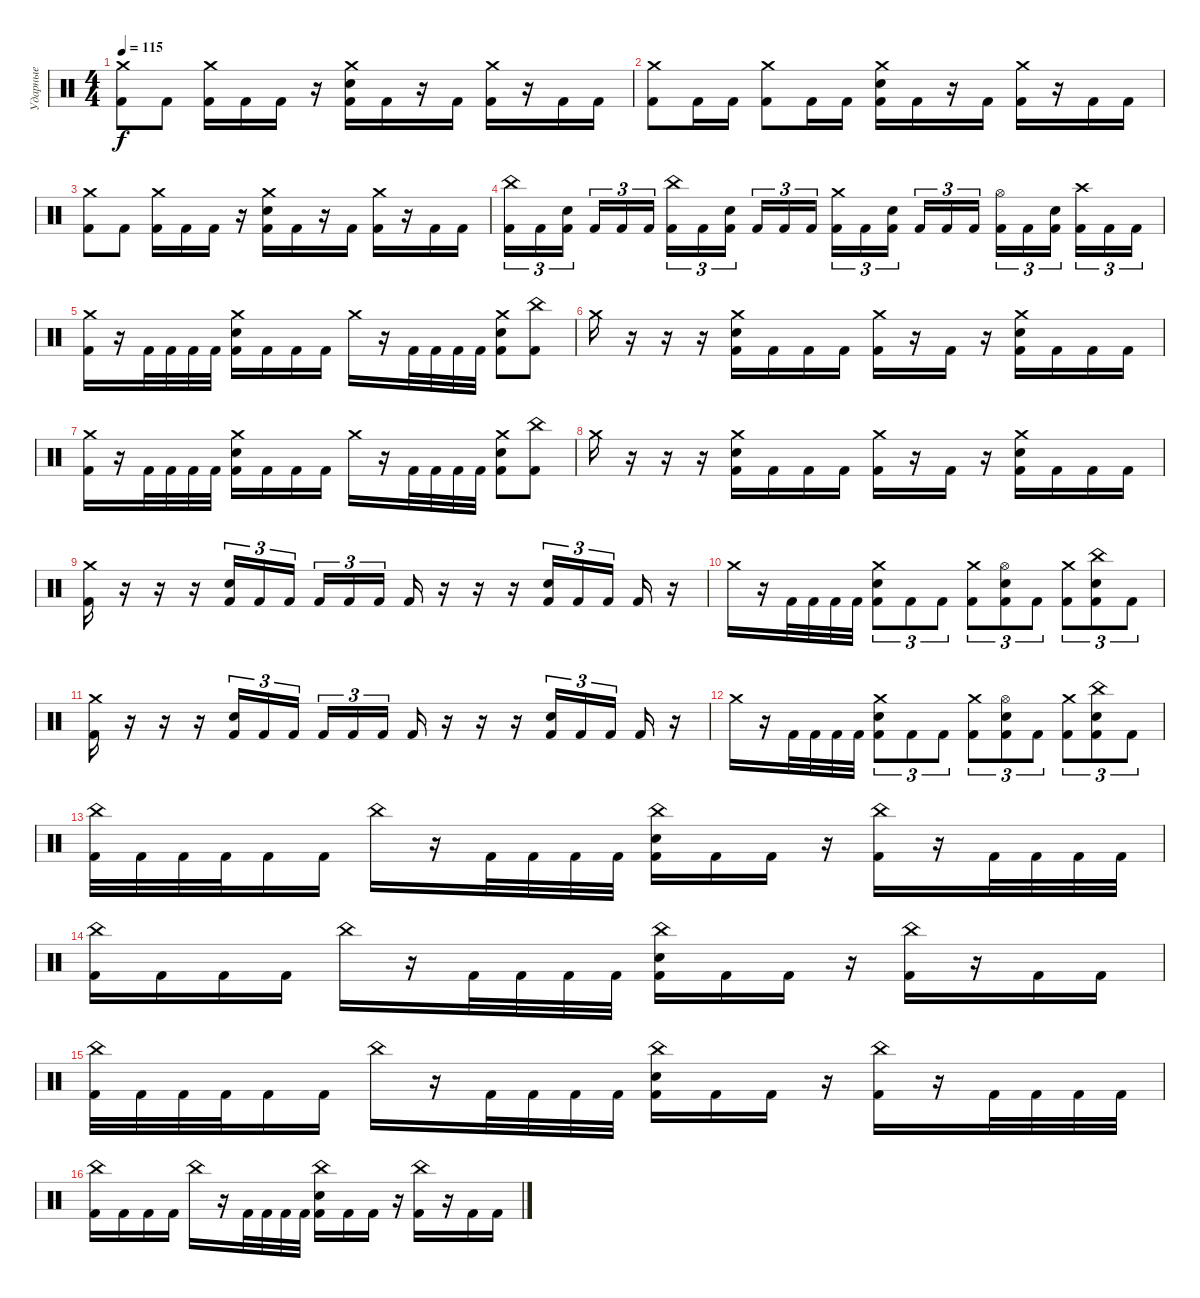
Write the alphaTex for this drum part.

\track ("Ударные" "Ударные") {instrument percussion}
\staff {score}
\articulation defaults
\ts (4 4)
\tempo 115
\clef neutral
\ks c
("Crash medium (hit)" "Kick (hit) 2").8{dy f} "Kick (hit) 2".8 ("Crash medium (hit)" "Kick (hit) 2").16 "Kick (hit) 2".16 "Kick (hit) 2".16 r.16 ("Crash medium (hit)" "Electric Snare (hit)" "Kick (hit) 2").16 "Kick (hit) 2".16 r.16 "Kick (hit) 2".16 ("Crash medium (hit)" "Kick (hit) 2").16 r.16 "Kick (hit) 2".16 "Kick (hit) 2".16 |
("Crash medium (hit)" "Kick (hit) 2").8 "Kick (hit) 2".16 "Kick (hit) 2".16 ("Crash medium (hit)" "Kick (hit) 2").8 "Kick (hit) 2".16 "Kick (hit) 2".16 ("Crash medium (hit)" "Electric Snare (hit)" "Kick (hit) 2").16 "Kick (hit) 2".16 r.16 "Kick (hit) 2".16 ("Crash medium (hit)" "Kick (hit) 2").16 r.16 "Kick (hit) 2".16 "Kick (hit) 2".16 |
("Crash medium (hit)" "Kick (hit) 2").8 "Kick (hit) 2".8 ("Crash medium (hit)" "Kick (hit) 2").16 "Kick (hit) 2".16 "Kick (hit) 2".16 r.16 ("Crash medium (hit)" "Electric Snare (hit)" "Kick (hit) 2").16 "Kick (hit) 2".16 r.16 "Kick (hit) 2".16 ("Crash medium (hit)" "Kick (hit) 2").16 r.16 "Kick (hit) 2".16 "Kick (hit) 2".16 |
("China (hit)" "Kick (hit) 2").16{tu (3 2)} "Kick (hit) 2".16{tu (3 2)} ("Electric Snare (hit)" "Kick (hit) 2").16{tu (3 2) beam splitsecondary} "Kick (hit) 2".16{tu (3 2)} "Kick (hit) 2".16{tu (3 2)} "Kick (hit) 2".16{tu (3 2)} ("China (hit)" "Kick (hit) 2").16{tu (3 2)} "Kick (hit) 2".16{tu (3 2)} ("Electric Snare (hit)" "Kick (hit) 2").16{tu (3 2) beam splitsecondary} "Kick (hit) 2".16{tu (3 2)} "Kick (hit) 2".16{tu (3 2)} "Kick (hit) 2".16{tu (3 2)} ("Crash medium (hit)" "Kick (hit) 2").16{tu (3 2)} "Kick (hit) 2".16{tu (3 2)} ("Electric Snare (hit)" "Kick (hit) 2").16{tu (3 2) beam splitsecondary} "Kick (hit) 2".16{tu (3 2)} "Kick (hit) 2".16{tu (3 2)} "Kick (hit) 2".16{tu (3 2)} ("Hi-Hat (open)" "Kick (hit) 2").16{tu (3 2)} "Kick (hit) 2".16{tu (3 2)} ("Electric Snare (hit)" "Kick (hit) 2").16{tu (3 2) beam splitsecondary} ("Crash high (hit)" "Kick (hit) 2").16{tu (3 2)} "Kick (hit) 2".16{tu (3 2)} "Kick (hit) 2".16{tu (3 2)} |
("Crash medium (hit)" "Kick (hit) 2").16 r.16 "Kick (hit) 2".32 "Kick (hit) 2".32 "Kick (hit) 2".32 "Kick (hit) 2".32 ("Crash medium (hit)" "Electric Snare (hit)" "Kick (hit) 2").16 "Kick (hit) 2".16 "Kick (hit) 2".16 "Kick (hit) 2".16 "Crash medium (hit)".16 r.16 "Kick (hit) 2".32 "Kick (hit) 2".32 "Kick (hit) 2".32 "Kick (hit) 2".32 ("Crash medium (hit)" "Electric Snare (hit)" "Kick (hit) 2").8 ("China (hit)" "Kick (hit) 2").8 |
"Crash medium (hit)".16 r.16 r.16 r.16 ("Crash medium (hit)" "Electric Snare (hit)" "Kick (hit) 2").16 "Kick (hit) 2".16 "Kick (hit) 2".16 "Kick (hit) 2".16 ("Crash medium (hit)" "Kick (hit) 2").16 r.16 "Kick (hit) 2".16 r.16 ("Crash medium (hit)" "Electric Snare (hit)" "Kick (hit) 2").16 "Kick (hit) 2".16 "Kick (hit) 2".16 "Kick (hit) 2".16 |
("Crash medium (hit)" "Kick (hit) 2").16 r.16 "Kick (hit) 2".32 "Kick (hit) 2".32 "Kick (hit) 2".32 "Kick (hit) 2".32 ("Crash medium (hit)" "Electric Snare (hit)" "Kick (hit) 2").16 "Kick (hit) 2".16 "Kick (hit) 2".16 "Kick (hit) 2".16 "Crash medium (hit)".16 r.16 "Kick (hit) 2".32 "Kick (hit) 2".32 "Kick (hit) 2".32 "Kick (hit) 2".32 ("Crash medium (hit)" "Electric Snare (hit)" "Kick (hit) 2").8 ("China (hit)" "Kick (hit) 2").8 |
"Crash medium (hit)".16 r.16 r.16 r.16 ("Crash medium (hit)" "Electric Snare (hit)" "Kick (hit) 2").16 "Kick (hit) 2".16 "Kick (hit) 2".16 "Kick (hit) 2".16 ("Crash medium (hit)" "Kick (hit) 2").16 r.16 "Kick (hit) 2".16 r.16 ("Crash medium (hit)" "Electric Snare (hit)" "Kick (hit) 2").16 "Kick (hit) 2".16 "Kick (hit) 2".16 "Kick (hit) 2".16 |
("Crash medium (hit)" "Kick (hit) 2").16 r.16 r.16 r.16 ("Electric Snare (hit)" "Kick (hit) 2").16{tu (3 2)} "Kick (hit) 2".16{tu (3 2)} "Kick (hit) 2".16{tu (3 2) beam splitsecondary} "Kick (hit) 2".16{tu (3 2)} "Kick (hit) 2".16{tu (3 2)} "Kick (hit) 2".16{tu (3 2)} "Kick (hit) 2".16 r.16 r.16 r.16 ("Electric Snare (hit)" "Kick (hit) 2").16{tu (3 2)} "Kick (hit) 2".16{tu (3 2)} "Kick (hit) 2".16{tu (3 2) beam splitsecondary} "Kick (hit) 2".16 r.16 |
"Crash medium (hit)".16 r.16 "Kick (hit) 2".32 "Kick (hit) 2".32 "Kick (hit) 2".32 "Kick (hit) 2".32 ("Crash medium (hit)" "Electric Snare (hit)" "Kick (hit) 2").8{tu (3 2)} "Kick (hit) 2".8{tu (3 2)} "Kick (hit) 2".8{tu (3 2)} ("Crash medium (hit)" "Kick (hit) 2").8{tu (3 2)} ("Hi-Hat (open)" "Electric Snare (hit)" "Kick (hit) 2").8{tu (3 2)} "Kick (hit) 2".8{tu (3 2)} ("Crash medium (hit)" "Kick (hit) 2").8{tu (3 2)} ("China (hit)" "Electric Snare (hit)" "Kick (hit) 2").8{tu (3 2)} "Kick (hit) 2".8{tu (3 2)} |
("Crash medium (hit)" "Kick (hit) 2").16 r.16 r.16 r.16 ("Electric Snare (hit)" "Kick (hit) 2").16{tu (3 2)} "Kick (hit) 2".16{tu (3 2)} "Kick (hit) 2".16{tu (3 2) beam splitsecondary} "Kick (hit) 2".16{tu (3 2)} "Kick (hit) 2".16{tu (3 2)} "Kick (hit) 2".16{tu (3 2)} "Kick (hit) 2".16 r.16 r.16 r.16 ("Electric Snare (hit)" "Kick (hit) 2").16{tu (3 2)} "Kick (hit) 2".16{tu (3 2)} "Kick (hit) 2".16{tu (3 2) beam splitsecondary} "Kick (hit) 2".16 r.16 |
"Crash medium (hit)".16 r.16 "Kick (hit) 2".32 "Kick (hit) 2".32 "Kick (hit) 2".32 "Kick (hit) 2".32 ("Crash medium (hit)" "Electric Snare (hit)" "Kick (hit) 2").8{tu (3 2)} "Kick (hit) 2".8{tu (3 2)} "Kick (hit) 2".8{tu (3 2)} ("Crash medium (hit)" "Kick (hit) 2").8{tu (3 2)} ("Hi-Hat (open)" "Electric Snare (hit)" "Kick (hit) 2").8{tu (3 2)} "Kick (hit) 2".8{tu (3 2)} ("Crash medium (hit)" "Kick (hit) 2").8{tu (3 2)} ("China (hit)" "Electric Snare (hit)" "Kick (hit) 2").8{tu (3 2)} "Kick (hit) 2".8{tu (3 2)} |
("China (hit)" "Kick (hit) 2").32 "Kick (hit) 2".32 "Kick (hit) 2".32 "Kick (hit) 2".32 "Kick (hit) 2".16 "Kick (hit) 2".16 "China (hit)".16 r.16 "Kick (hit) 2".32 "Kick (hit) 2".32 "Kick (hit) 2".32 "Kick (hit) 2".32 ("China (hit)" "Electric Snare (hit)" "Kick (hit) 2").16 "Kick (hit) 2".16 "Kick (hit) 2".16 r.16 ("China (hit)" "Kick (hit) 2").16 r.16 "Kick (hit) 2".32 "Kick (hit) 2".32 "Kick (hit) 2".32 "Kick (hit) 2".32 |
("China (hit)" "Kick (hit) 2").16 "Kick (hit) 2".16 "Kick (hit) 2".16 "Kick (hit) 2".16 "China (hit)".16 r.16 "Kick (hit) 2".32 "Kick (hit) 2".32 "Kick (hit) 2".32 "Kick (hit) 2".32 ("China (hit)" "Electric Snare (hit)" "Kick (hit) 2").16 "Kick (hit) 2".16 "Kick (hit) 2".16 r.16 ("China (hit)" "Kick (hit) 2").16 r.16 "Kick (hit) 2".16 "Kick (hit) 2".16 |
("China (hit)" "Kick (hit) 2").32 "Kick (hit) 2".32 "Kick (hit) 2".32 "Kick (hit) 2".32 "Kick (hit) 2".16 "Kick (hit) 2".16 "China (hit)".16 r.16 "Kick (hit) 2".32 "Kick (hit) 2".32 "Kick (hit) 2".32 "Kick (hit) 2".32 ("China (hit)" "Electric Snare (hit)" "Kick (hit) 2").16 "Kick (hit) 2".16 "Kick (hit) 2".16 r.16 ("China (hit)" "Kick (hit) 2").16 r.16 "Kick (hit) 2".32 "Kick (hit) 2".32 "Kick (hit) 2".32 "Kick (hit) 2".32 |
("China (hit)" "Kick (hit) 2").16 "Kick (hit) 2".16 "Kick (hit) 2".16 "Kick (hit) 2".16 "China (hit)".16 r.16 "Kick (hit) 2".32 "Kick (hit) 2".32 "Kick (hit) 2".32 "Kick (hit) 2".32 ("China (hit)" "Electric Snare (hit)" "Kick (hit) 2").16 "Kick (hit) 2".16 "Kick (hit) 2".16 r.16 ("China (hit)" "Kick (hit) 2").16 r.16 "Kick (hit) 2".16 "Kick (hit) 2".16
